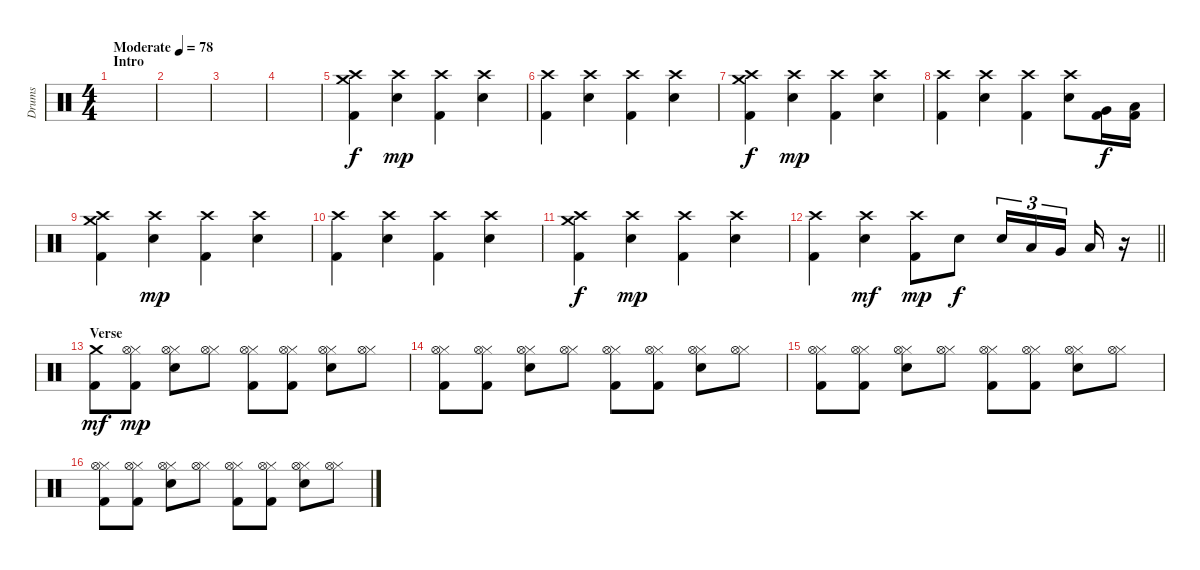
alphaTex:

\track ("Drums" "Drums") {instrument percussion}
\staff {score}
\articulation defaults
\ts (4 4)
\section ("" "Intro")
\tempo (78 "Moderate")
\clef neutral
\ks c
|
|
|
|
("Kick (hit) 2" "Crash high (hit)" "Crash medium (hit)").4{volume 13} ("Snare (hit) 2" "Crash high (hit)").4{dy mp} ("Kick (hit) 2" "Crash high (hit)").4 ("Snare (hit) 2" "Crash high (hit)").4 |
("Kick (hit) 2" "Crash high (hit)").4 ("Snare (hit) 2" "Crash high (hit)").4 ("Kick (hit) 2" "Crash high (hit)").4 ("Snare (hit) 2" "Crash high (hit)").4 |
("Kick (hit) 2" "Crash high (hit)" "Crash medium (hit)").4{dy f} ("Snare (hit) 2" "Crash high (hit)").4{dy mp} ("Kick (hit) 2" "Crash high (hit)").4 ("Snare (hit) 2" "Crash high (hit)").4 |
("Kick (hit) 2" "Crash high (hit)").4 ("Snare (hit) 2" "Crash high (hit)").4 ("Kick (hit) 2" "Crash high (hit)").4 ("Snare (hit) 2" "Crash high (hit)").8 ("Kick (hit) 2" "Very Low Tom (hit)").16{dy f} ("Kick (hit) 2" "Low Floor Tom (hit)").16 |
("Kick (hit) 2" "Crash high (hit)" "Crash medium (hit)").4 ("Snare (hit) 2" "Crash high (hit)").4{dy mp} ("Kick (hit) 2" "Crash high (hit)").4 ("Snare (hit) 2" "Crash high (hit)").4 |
("Kick (hit) 2" "Crash high (hit)").4 ("Snare (hit) 2" "Crash high (hit)").4 ("Kick (hit) 2" "Crash high (hit)").4 ("Snare (hit) 2" "Crash high (hit)").4 |
("Kick (hit) 2" "Crash high (hit)" "Crash medium (hit)").4{dy f} ("Snare (hit) 2" "Crash high (hit)").4{dy mp} ("Kick (hit) 2" "Crash high (hit)").4 ("Snare (hit) 2" "Crash high (hit)").4 |
\barLineRight lightlight
("Kick (hit) 2" "Crash high (hit)").4 ("Snare (hit) 2" "Crash high (hit)").4{dy mf} ("Kick (hit) 2" "Crash high (hit)").8{dy mp} "Snare (hit) 2".8{dy f} "Snare (hit) 2".16{tu (3 2)} "Low Tom (hit)".16{tu (3 2)} "Very Low Tom (hit)".16{tu (3 2) beam splitsecondary} "Low Floor Tom (hit)".16 r.16 |
\section ("" "Verse")
("Kick (hit) 2" "Crash medium (hit)").8{dy mf} ("Kick (hit) 2" "Hi-Hat (closed)" "Hi-Hat (open)").8{dy mp} ("Snare (hit) 2" "Hi-Hat (closed)" "Hi-Hat (open)").8 ("Hi-Hat (closed)" "Hi-Hat (open)").8 ("Kick (hit) 2" "Hi-Hat (closed)" "Hi-Hat (open)").8 ("Kick (hit) 2" "Hi-Hat (closed)" "Hi-Hat (open)").8 ("Snare (hit) 2" "Hi-Hat (closed)" "Hi-Hat (open)").8 ("Hi-Hat (closed)" "Hi-Hat (open)").8 |
("Kick (hit) 2" "Hi-Hat (closed)" "Hi-Hat (open)").8 ("Kick (hit) 2" "Hi-Hat (closed)" "Hi-Hat (open)").8 ("Snare (hit) 2" "Hi-Hat (closed)" "Hi-Hat (open)").8 ("Hi-Hat (closed)" "Hi-Hat (open)").8 ("Kick (hit) 2" "Hi-Hat (closed)" "Hi-Hat (open)").8 ("Kick (hit) 2" "Hi-Hat (closed)" "Hi-Hat (open)").8 ("Snare (hit) 2" "Hi-Hat (closed)" "Hi-Hat (open)").8 ("Hi-Hat (closed)" "Hi-Hat (open)").8 |
("Kick (hit) 2" "Hi-Hat (closed)" "Hi-Hat (open)").8 ("Kick (hit) 2" "Hi-Hat (closed)" "Hi-Hat (open)").8 ("Snare (hit) 2" "Hi-Hat (closed)" "Hi-Hat (open)").8 ("Hi-Hat (closed)" "Hi-Hat (open)").8 ("Kick (hit) 2" "Hi-Hat (closed)" "Hi-Hat (open)").8 ("Kick (hit) 2" "Hi-Hat (closed)" "Hi-Hat (open)").8 ("Snare (hit) 2" "Hi-Hat (closed)" "Hi-Hat (open)").8 ("Hi-Hat (closed)" "Hi-Hat (open)").8 |
("Kick (hit) 2" "Hi-Hat (closed)" "Hi-Hat (open)").8 ("Kick (hit) 2" "Hi-Hat (closed)" "Hi-Hat (open)").8 ("Snare (hit) 2" "Hi-Hat (closed)" "Hi-Hat (open)").8 ("Hi-Hat (closed)" "Hi-Hat (open)").8 ("Kick (hit) 2" "Hi-Hat (closed)" "Hi-Hat (open)").8 ("Kick (hit) 2" "Hi-Hat (closed)" "Hi-Hat (open)").8 ("Snare (hit) 2" "Hi-Hat (closed)" "Hi-Hat (open)").8 ("Hi-Hat (closed)" "Hi-Hat (open)").8
